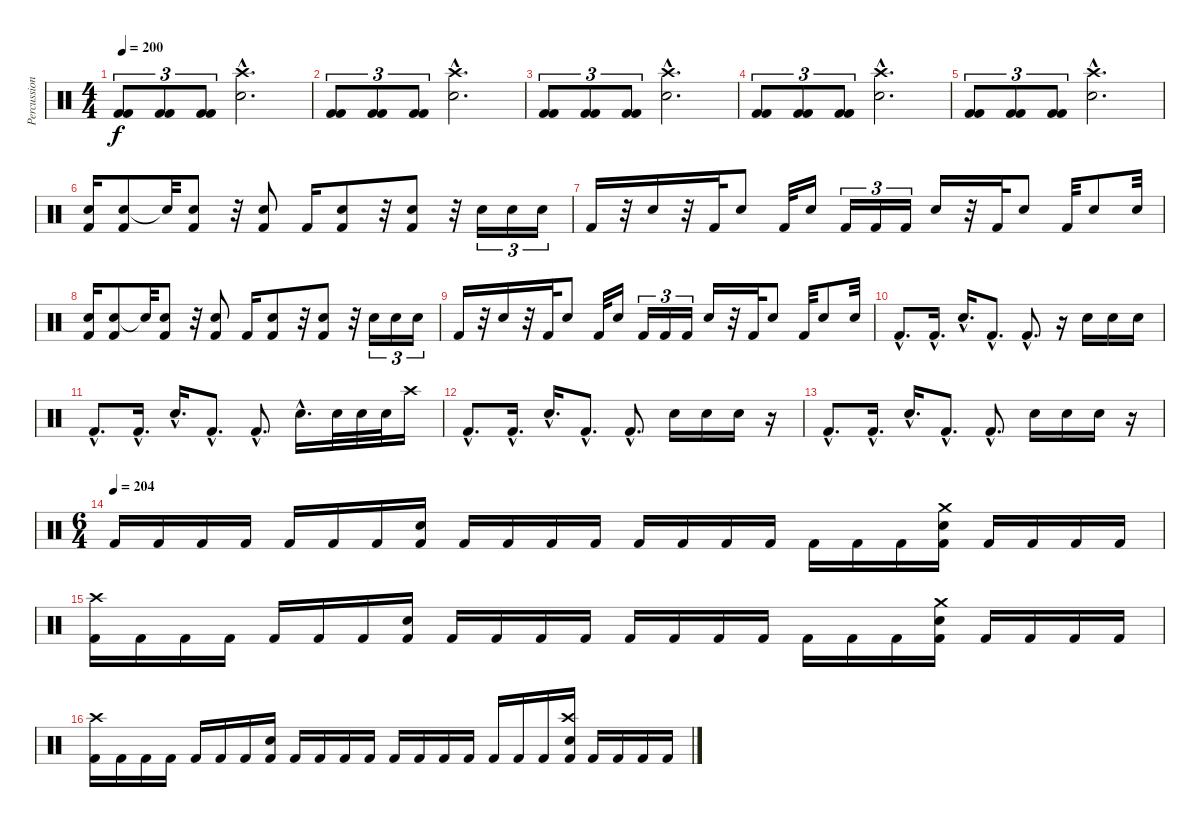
\track ("Percussions" "Percussion") {instrument percussion}
\staff {score}
\articulation defaults
\ts (4 4)
\tempo 200
\tempo 147
\tempo 200
\clef neutral
\ks c
("Kick (hit) 2" "Kick (hit) 2").8{tu (3 2) dy f} ("Kick (hit) 2" "Kick (hit) 2").8{tu (3 2)} ("Kick (hit) 2" "Kick (hit) 2").8{tu (3 2)} ("Crash high (hit)"{hac} "Electric Snare (hit)").2{d} |
("Kick (hit) 2" "Kick (hit) 2").8{tu (3 2)} ("Kick (hit) 2" "Kick (hit) 2").8{tu (3 2)} ("Kick (hit) 2" "Kick (hit) 2").8{tu (3 2)} ("Crash high (hit)"{hac} "Electric Snare (hit)").2{d} |
("Kick (hit) 2" "Kick (hit) 2").8{tu (3 2)} ("Kick (hit) 2" "Kick (hit) 2").8{tu (3 2)} ("Kick (hit) 2" "Kick (hit) 2").8{tu (3 2)} ("Crash high (hit)"{hac} "Electric Snare (hit)").2{d} |
("Kick (hit) 2" "Kick (hit) 2").8{tu (3 2)} ("Kick (hit) 2" "Kick (hit) 2").8{tu (3 2)} ("Kick (hit) 2" "Kick (hit) 2").8{tu (3 2)} ("Crash high (hit)"{hac} "Electric Snare (hit)").2{d} |
("Kick (hit) 2" "Kick (hit) 2").8{tu (3 2)} ("Kick (hit) 2" "Kick (hit) 2").8{tu (3 2)} ("Kick (hit) 2" "Kick (hit) 2").8{tu (3 2)} ("Crash high (hit)"{hac} "Electric Snare (hit)").2{d} |
("Snare (hit) 2" "Kick (hit) 2").16 ("Electric Snare (hit)" "Kick (hit) 2").8 "Snare (hit)"{t}.32 ("Electric Snare (hit)" "Kick (hit) 2").8 r.32 ("Electric Snare (hit)" "Kick (hit) 2").8 "Kick (hit) 2".16 ("Electric Snare (hit)" "Kick (hit) 2").8 r.32 ("Electric Snare (hit)" "Kick (hit) 2").8 r.32 "Electric Snare (hit)".16{tu (3 2)} "Electric Snare (hit)".16{tu (3 2)} "Electric Snare (hit)".16{tu (3 2)} |
"Kick (hit) 2".16 r.32 "Electric Snare (hit)".16 r.32 "Kick (hit) 2".32 "Electric Snare (hit)".8 "Kick (hit) 2".32 "Electric Snare (hit)".16 "Kick (hit) 2".16{tu (3 2)} "Kick (hit) 2".16{tu (3 2)} "Kick (hit) 2".16{tu (3 2)} "Electric Snare (hit)".16 r.32 "Kick (hit) 2".32 "Electric Snare (hit)".8 "Kick (hit) 2".32 "Electric Snare (hit)".8 "Electric Snare (hit)".32 |
("Snare (hit) 2" "Kick (hit) 2").16 ("Electric Snare (hit)" "Kick (hit) 2").8 "Snare (hit)"{t}.32 ("Electric Snare (hit)" "Kick (hit) 2").8 r.32 ("Electric Snare (hit)" "Kick (hit) 2").8 "Kick (hit) 2".16 ("Electric Snare (hit)" "Kick (hit) 2").8 r.32 ("Electric Snare (hit)" "Kick (hit) 2").8 r.32 "Electric Snare (hit)".16{tu (3 2)} "Electric Snare (hit)".16{tu (3 2)} "Electric Snare (hit)".16{tu (3 2)} |
"Kick (hit) 2".16 r.32 "Electric Snare (hit)".16 r.32 "Kick (hit) 2".32 "Electric Snare (hit)".8 "Kick (hit) 2".32 "Electric Snare (hit)".16 "Kick (hit) 2".16{tu (3 2)} "Kick (hit) 2".16{tu (3 2)} "Kick (hit) 2".16{tu (3 2)} "Electric Snare (hit)".16 r.32 "Kick (hit) 2".32 "Electric Snare (hit)".8 "Kick (hit) 2".32 "Electric Snare (hit)".8 "Electric Snare (hit)".32 |
"Kick (hit) 2"{hac}.8{d} "Kick (hit) 2"{hac}.16{d} "Electric Snare (hit)"{hac}.16{d} "Kick (hit) 2"{hac}.8{d} "Kick (hit) 2"{hac}.8{d} r.16 "Electric Snare (hit)".16 "Electric Snare (hit)".16 "Electric Snare (hit)".16 |
"Kick (hit) 2"{hac}.8{d} "Kick (hit) 2"{hac}.16{d} "Electric Snare (hit)"{hac}.16{d} "Kick (hit) 2"{hac}.8{d} "Kick (hit) 2"{hac}.8{d} "Electric Snare (hit)"{hac}.16{d} "Electric Snare (hit)".32 "Electric Snare (hit)".32 "Electric Snare (hit)".32 "Crash high (hit)".16 |
"Kick (hit) 2"{hac}.8{d} "Kick (hit) 2"{hac}.16{d} "Electric Snare (hit)"{hac}.16{d} "Kick (hit) 2"{hac}.8{d} "Kick (hit) 2"{hac}.8{d} "Electric Snare (hit)".16 "Electric Snare (hit)".16 "Electric Snare (hit)".16 r.16 |
"Kick (hit) 2"{hac}.8{d} "Kick (hit) 2"{hac}.16{d} "Electric Snare (hit)"{hac}.16{d} "Kick (hit) 2"{hac}.8{d} "Kick (hit) 2"{hac}.8{d} "Electric Snare (hit)".16 "Electric Snare (hit)".16 "Electric Snare (hit)".16 r.16 |
\ts (6 4)
\tempo (204)
"Kick (hit) 2".16 "Kick (hit) 2".16 "Kick (hit) 2".16 "Kick (hit) 2".16 "Kick (hit) 2".16 "Kick (hit) 2".16 "Kick (hit) 2".16 ("Electric Snare (hit)" "Kick (hit) 2").16 "Kick (hit) 2".16 "Kick (hit) 2".16 "Kick (hit) 2".16 "Kick (hit) 2".16 "Kick (hit) 2".16 "Kick (hit) 2".16 "Kick (hit) 2".16 "Kick (hit) 2".16 "Kick (hit) 2".16 "Kick (hit) 2".16 "Kick (hit) 2".16 ("Crash medium (hit)" "Electric Snare (hit)" "Kick (hit) 2").16 "Kick (hit) 2".16 "Kick (hit) 2".16 "Kick (hit) 2".16 "Kick (hit) 2".16 |
("Crash high (hit)" "Kick (hit) 2").16 "Kick (hit) 2".16 "Kick (hit) 2".16 "Kick (hit) 2".16 "Kick (hit) 2".16 "Kick (hit) 2".16 "Kick (hit) 2".16 ("Electric Snare (hit)" "Kick (hit) 2").16 "Kick (hit) 2".16 "Kick (hit) 2".16 "Kick (hit) 2".16 "Kick (hit) 2".16 "Kick (hit) 2".16 "Kick (hit) 2".16 "Kick (hit) 2".16 "Kick (hit) 2".16 "Kick (hit) 2".16 "Kick (hit) 2".16 "Kick (hit) 2".16 ("Crash medium (hit)" "Electric Snare (hit)" "Kick (hit) 2").16 "Kick (hit) 2".16 "Kick (hit) 2".16 "Kick (hit) 2".16 "Kick (hit) 2".16 |
("Crash high (hit)" "Kick (hit) 2").16 "Kick (hit) 2".16 "Kick (hit) 2".16 "Kick (hit) 2".16 "Kick (hit) 2".16 "Kick (hit) 2".16 "Kick (hit) 2".16 ("Electric Snare (hit)" "Kick (hit) 2").16 "Kick (hit) 2".16 "Kick (hit) 2".16 "Kick (hit) 2".16 "Kick (hit) 2".16 "Kick (hit) 2".16 "Kick (hit) 2".16 "Kick (hit) 2".16 "Kick (hit) 2".16 "Kick (hit) 2".16 "Kick (hit) 2".16 "Kick (hit) 2".16 ("Crash high (hit)" "Electric Snare (hit)" "Kick (hit) 2").16 "Kick (hit) 2".16 "Kick (hit) 2".16 "Kick (hit) 2".16 "Kick (hit) 2".16
